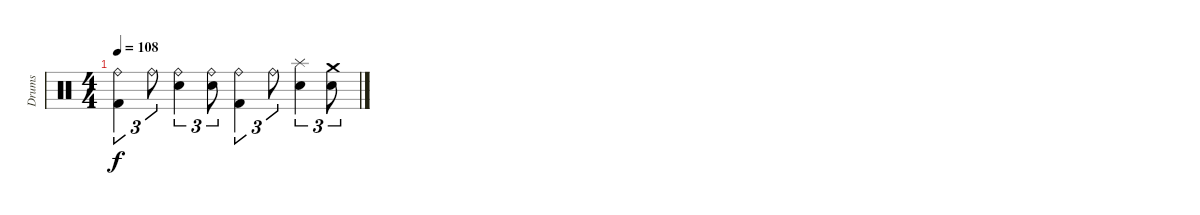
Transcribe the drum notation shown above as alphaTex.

\track ("Drums" "Drums") {instrument percussion}
\staff {score}
\articulation defaults
\ts (4 4)
\tempo 108
\clef neutral
\ks c
("Ride (bell)" "Kick (hit) 2").4{tu (3 2) dy f} "Ride (bell)".8{tu (3 2)} ("Ride (bell)" "Electric Snare (hit)").4{tu (3 2)} ("Ride (bell)" "Electric Snare (hit)").8{tu (3 2)} ("Ride (bell)" "Kick (hit) 2").4{tu (3 2)} "Ride (bell)".8{tu (3 2)} ("Splash (hit)" "Electric Snare (hit)").4{tu (3 2)} ("Crash medium (hit)" "Electric Snare (hit)").8{tu (3 2)}
